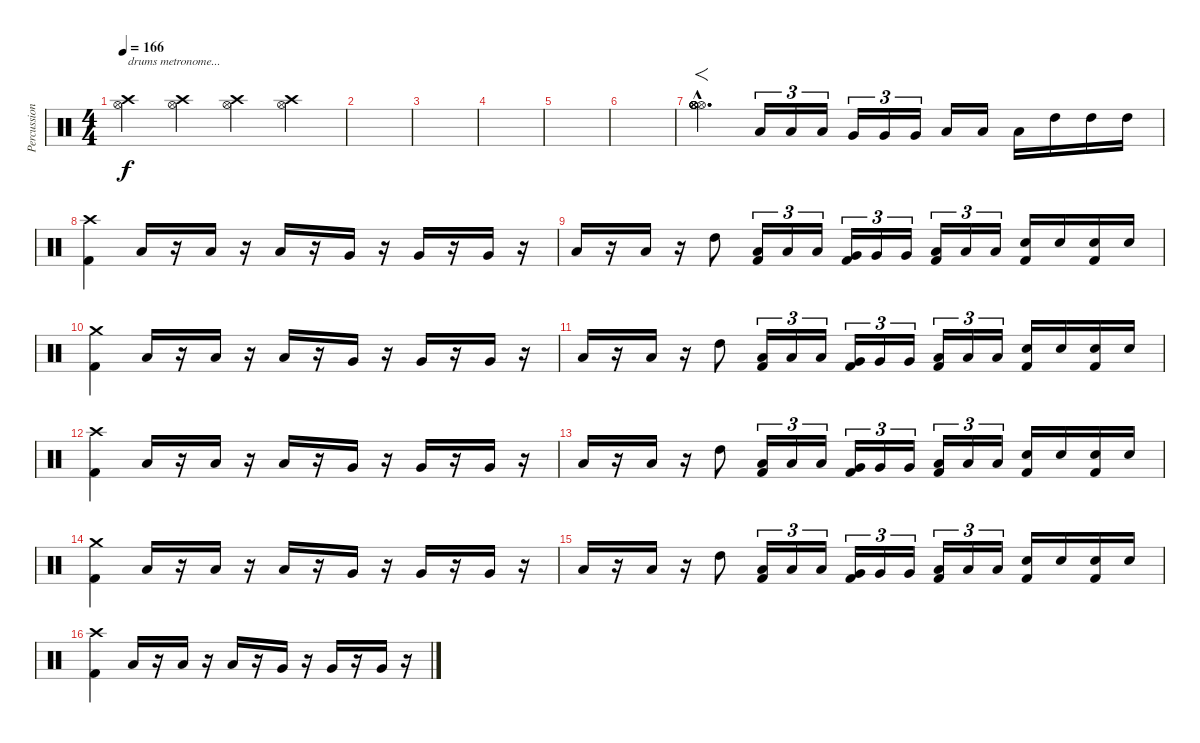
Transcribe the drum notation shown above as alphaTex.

\track ("Percussion" "Percussion") {instrument percussion}
\staff {score}
\articulation defaults
\ts (4 4)
\tempo 166
\clef neutral
\ks c
("Hi-Hat (open)" "Crash high (hit)").4{txt "drums metronome..." dy f} ("Hi-Hat (open)" "Crash high (hit)").4 ("Hi-Hat (open)" "Crash high (hit)").4 ("Hi-Hat (open)" "Crash high (hit)").4 |
|
|
|
|
|
("Hi-Hat (open)"{hac} "Hi-Hat (open)"{hac} "Hi-Hat (open)"{hac} "Hi-Hat (open)"{hac} "Hi-Hat (open)"{hac} "Hi-Hat (open)"{hac}).4{f d} "Low Floor Tom (hit)".16{tu (3 2)} "Low Floor Tom (hit)".16{tu (3 2)} "Low Floor Tom (hit)".16{tu (3 2)} "Very Low Tom (hit)".16{tu (3 2)} "Very Low Tom (hit)".16{tu (3 2)} "Very Low Tom (hit)".16{tu (3 2)} "Low Tom (hit)".16 "Low Tom (hit)".16 "Low Tom (hit)".16 "High Tom (hit)".16 "High Tom (hit)".16 "High Tom (hit)".16 |
("Crash high (hit)" "Kick (hit) 2").4 "Low Floor Tom (hit)".16 r.16 "Low Floor Tom (hit)".16 r.16 "Low Floor Tom (hit)".16 r.16 "Very Low Tom (hit)".16 r.16 "Very Low Tom (hit)".16 r.16 "Very Low Tom (hit)".16 r.16 |
"Low Tom (hit)".16 r.16 "Low Tom (hit)".16 r.16 "High Tom (hit)".8 ("Low Floor Tom (hit)" "Kick (hit) 2").16{tu (3 2)} "Low Floor Tom (hit)".16{tu (3 2)} "Low Floor Tom (hit)".16{tu (3 2)} ("Very Low Tom (hit)" "Kick (hit) 2").16{tu (3 2)} "Very Low Tom (hit)".16{tu (3 2)} "Very Low Tom (hit)".16{tu (3 2)} ("Low Tom (hit)" "Kick (hit) 2").16{tu (3 2)} "Low Tom (hit)".16{tu (3 2)} "Low Tom (hit)".16{tu (3 2)} ("Snare (hit) 2" "Kick (hit) 2").16 "Snare (hit) 2".16 ("Snare (hit) 2" "Kick (hit) 2").16 "Snare (hit) 2".16 |
("Crash medium (hit)" "Kick (hit) 2").4 "Low Floor Tom (hit)".16 r.16 "Low Floor Tom (hit)".16 r.16 "Low Floor Tom (hit)".16 r.16 "Very Low Tom (hit)".16 r.16 "Very Low Tom (hit)".16 r.16 "Very Low Tom (hit)".16 r.16 |
"Low Tom (hit)".16 r.16 "Low Tom (hit)".16 r.16 "High Tom (hit)".8 ("Low Floor Tom (hit)" "Kick (hit) 2").16{tu (3 2)} "Low Floor Tom (hit)".16{tu (3 2)} "Low Floor Tom (hit)".16{tu (3 2)} ("Very Low Tom (hit)" "Kick (hit) 2").16{tu (3 2)} "Very Low Tom (hit)".16{tu (3 2)} "Very Low Tom (hit)".16{tu (3 2)} ("Low Tom (hit)" "Kick (hit) 2").16{tu (3 2)} "Low Tom (hit)".16{tu (3 2)} "Low Tom (hit)".16{tu (3 2)} ("Snare (hit) 2" "Kick (hit) 2").16 "Snare (hit) 2".16 ("Snare (hit) 2" "Kick (hit) 2").16 "Snare (hit) 2".16 |
("Crash high (hit)" "Kick (hit) 2").4 "Low Floor Tom (hit)".16 r.16 "Low Floor Tom (hit)".16 r.16 "Low Floor Tom (hit)".16 r.16 "Very Low Tom (hit)".16 r.16 "Very Low Tom (hit)".16 r.16 "Very Low Tom (hit)".16 r.16 |
"Low Tom (hit)".16 r.16 "Low Tom (hit)".16 r.16 "High Tom (hit)".8 ("Low Floor Tom (hit)" "Kick (hit) 2").16{tu (3 2)} "Low Floor Tom (hit)".16{tu (3 2)} "Low Floor Tom (hit)".16{tu (3 2)} ("Very Low Tom (hit)" "Kick (hit) 2").16{tu (3 2)} "Very Low Tom (hit)".16{tu (3 2)} "Very Low Tom (hit)".16{tu (3 2)} ("Low Tom (hit)" "Kick (hit) 2").16{tu (3 2)} "Low Tom (hit)".16{tu (3 2)} "Low Tom (hit)".16{tu (3 2)} ("Snare (hit) 2" "Kick (hit) 2").16 "Snare (hit) 2".16 ("Snare (hit) 2" "Kick (hit) 2").16 "Snare (hit) 2".16 |
("Crash medium (hit)" "Kick (hit) 2").4 "Low Floor Tom (hit)".16 r.16 "Low Floor Tom (hit)".16 r.16 "Low Floor Tom (hit)".16 r.16 "Very Low Tom (hit)".16 r.16 "Very Low Tom (hit)".16 r.16 "Very Low Tom (hit)".16 r.16 |
"Low Tom (hit)".16 r.16 "Low Tom (hit)".16 r.16 "High Tom (hit)".8 ("Low Floor Tom (hit)" "Kick (hit) 2").16{tu (3 2)} "Low Floor Tom (hit)".16{tu (3 2)} "Low Floor Tom (hit)".16{tu (3 2)} ("Very Low Tom (hit)" "Kick (hit) 2").16{tu (3 2)} "Very Low Tom (hit)".16{tu (3 2)} "Very Low Tom (hit)".16{tu (3 2)} ("Low Tom (hit)" "Kick (hit) 2").16{tu (3 2)} "Low Tom (hit)".16{tu (3 2)} "Low Tom (hit)".16{tu (3 2)} ("Snare (hit) 2" "Kick (hit) 2").16 "Snare (hit) 2".16 ("Snare (hit) 2" "Kick (hit) 2").16 "Snare (hit) 2".16 |
("Crash high (hit)" "Kick (hit) 2").4 "Low Floor Tom (hit)".16 r.16 "Low Floor Tom (hit)".16 r.16 "Low Floor Tom (hit)".16 r.16 "Very Low Tom (hit)".16 r.16 "Very Low Tom (hit)".16 r.16 "Very Low Tom (hit)".16 r.16
